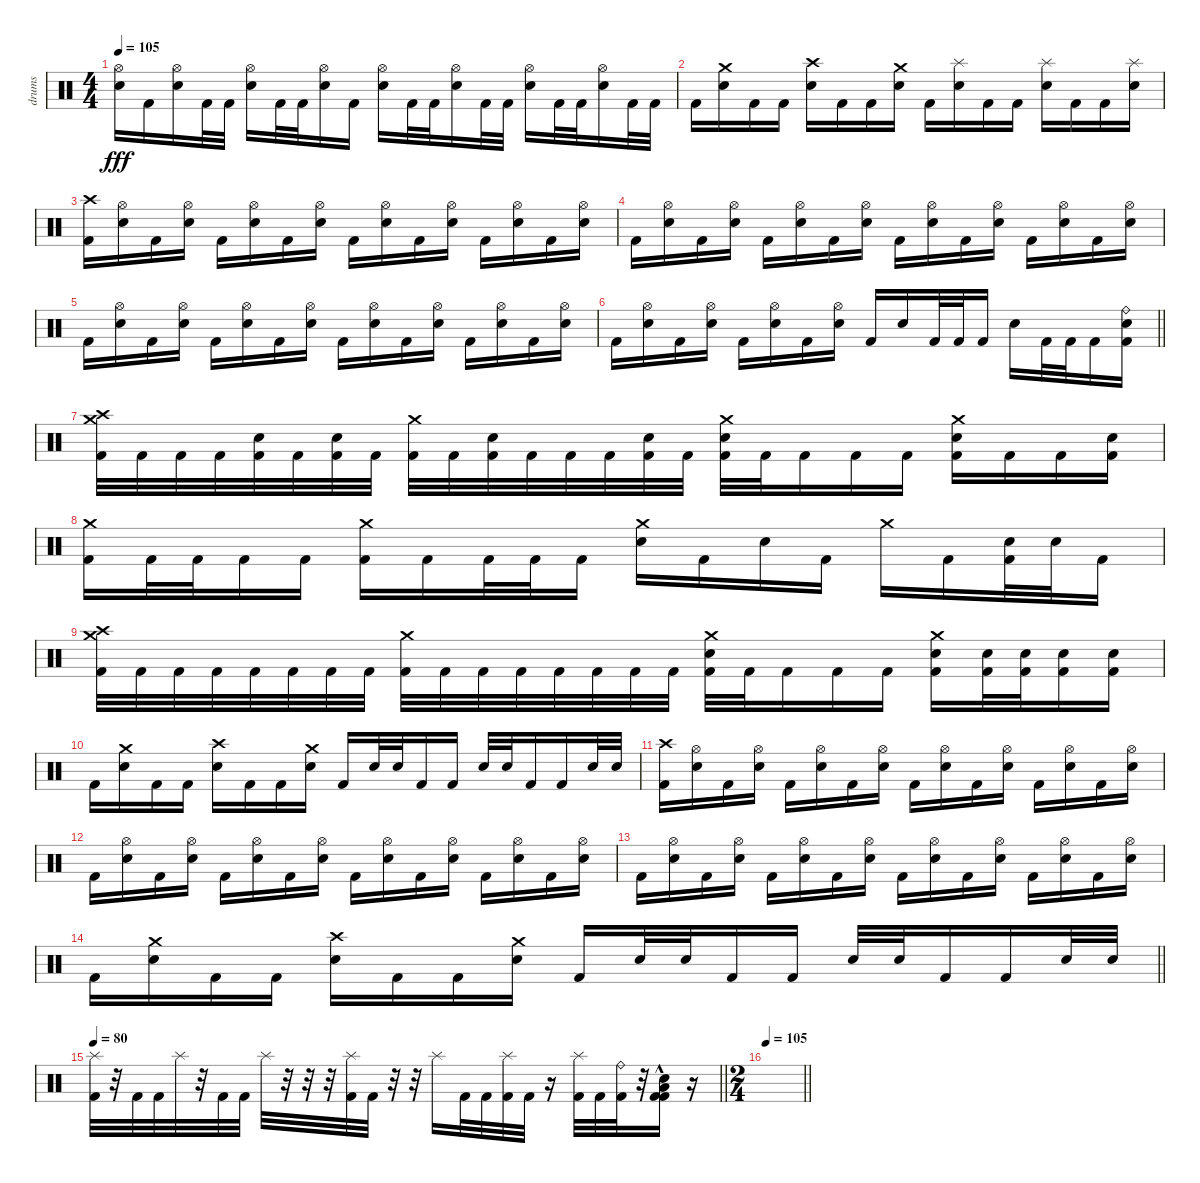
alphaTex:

\track ("drums" "drums") {instrument percussion}
\staff {score}
\articulation defaults
\ts (4 4)
\tempo 105
\clef neutral
\ks c
("Hi-Hat (open)" "Electric Snare (hit)").16{dy fff} "Kick (hit) 2".16 ("Hi-Hat (open)" "Electric Snare (hit)").16 "Kick (hit) 2".32 "Kick (hit) 2".32 ("Hi-Hat (open)" "Electric Snare (hit)").16 "Kick (hit) 2".32 "Kick (hit) 2".32 ("Hi-Hat (open)" "Electric Snare (hit)").16 "Kick (hit) 2".16 ("Hi-Hat (open)" "Electric Snare (hit)").16 "Kick (hit) 2".32 "Kick (hit) 2".32 ("Hi-Hat (open)" "Electric Snare (hit)").16 "Kick (hit) 2".32 "Kick (hit) 2".32 ("Hi-Hat (open)" "Electric Snare (hit)").16 "Kick (hit) 2".32 "Kick (hit) 2".32 ("Hi-Hat (open)" "Electric Snare (hit)").16 "Kick (hit) 2".32 "Kick (hit) 2".32 |
"Kick (hit) 2".16 ("Crash medium (hit)" "Electric Snare (hit)").16 "Kick (hit) 2".16 "Kick (hit) 2".16 ("Crash high (hit)" "Electric Snare (hit)").16 "Kick (hit) 2".16 "Kick (hit) 2".16 ("Crash medium (hit)" "Electric Snare (hit)").16 "Kick (hit) 2".16 ("Splash (hit)" "Electric Snare (hit)").16 "Kick (hit) 2".16 "Kick (hit) 2".16 ("Splash (hit)" "Electric Snare (hit)").16 "Kick (hit) 2".16 "Kick (hit) 2".16 ("Splash (hit)" "Electric Snare (hit)").16 |
("Crash high (hit)" "Kick (hit) 2").16 ("Hi-Hat (open)" "Electric Snare (hit)").16 "Kick (hit) 2".16 ("Hi-Hat (open)" "Electric Snare (hit)").16 "Kick (hit) 2".16 ("Hi-Hat (open)" "Electric Snare (hit)").16 "Kick (hit) 2".16 ("Hi-Hat (open)" "Electric Snare (hit)").16 "Kick (hit) 2".16 ("Hi-Hat (open)" "Electric Snare (hit)").16 "Kick (hit) 2".16 ("Hi-Hat (open)" "Electric Snare (hit)").16 "Kick (hit) 2".16 ("Hi-Hat (open)" "Electric Snare (hit)").16 "Kick (hit) 2".16 ("Hi-Hat (open)" "Electric Snare (hit)").16 |
"Kick (hit) 2".16 ("Hi-Hat (open)" "Electric Snare (hit)").16 "Kick (hit) 2".16 ("Hi-Hat (open)" "Electric Snare (hit)").16 "Kick (hit) 2".16 ("Hi-Hat (open)" "Electric Snare (hit)").16 "Kick (hit) 2".16 ("Hi-Hat (open)" "Electric Snare (hit)").16 "Kick (hit) 2".16 ("Hi-Hat (open)" "Electric Snare (hit)").16 "Kick (hit) 2".16 ("Hi-Hat (open)" "Electric Snare (hit)").16 "Kick (hit) 2".16 ("Hi-Hat (open)" "Electric Snare (hit)").16 "Kick (hit) 2".16 ("Hi-Hat (open)" "Electric Snare (hit)").16 |
"Kick (hit) 2".16 ("Hi-Hat (open)" "Electric Snare (hit)").16 "Kick (hit) 2".16 ("Hi-Hat (open)" "Electric Snare (hit)").16 "Kick (hit) 2".16 ("Hi-Hat (open)" "Electric Snare (hit)").16 "Kick (hit) 2".16 ("Hi-Hat (open)" "Electric Snare (hit)").16 "Kick (hit) 2".16 ("Hi-Hat (open)" "Electric Snare (hit)").16 "Kick (hit) 2".16 ("Hi-Hat (open)" "Electric Snare (hit)").16 "Kick (hit) 2".16 ("Hi-Hat (open)" "Electric Snare (hit)").16 "Kick (hit) 2".16 ("Hi-Hat (open)" "Electric Snare (hit)").16 |
\barLineRight lightlight "Kick (hit) 2".16
("Hi-Hat (open)" "Electric Snare (hit)").16 "Kick (hit) 2".16 ("Hi-Hat (open)" "Electric Snare (hit)").16 "Kick (hit) 2".16 ("Hi-Hat (open)" "Electric Snare (hit)").16 "Kick (hit) 2".16 ("Hi-Hat (open)" "Electric Snare (hit)").16 "Kick (hit) 2".16 "Electric Snare (hit)".16 "Kick (hit) 2".32 "Kick (hit) 2".32 "Kick (hit) 2".16 "Electric Snare (hit)".16 "Kick (hit) 2".32 "Kick (hit) 2".32 "Kick (hit) 2".16 ("Ride (bell)" "Electric Snare (hit)" "Kick (hit) 2").16 |
\section ("" "")
("Crash high (hit)" "Crash medium (hit)" "Kick (hit) 2").32 "Kick (hit) 2".32 "Kick (hit) 2".32 "Kick (hit) 2".32 ("Electric Snare (hit)" "Kick (hit) 2").32 "Kick (hit) 2".32 ("Electric Snare (hit)" "Kick (hit) 2").32 "Kick (hit) 2".32 ("Crash medium (hit)" "Kick (hit) 2").32 "Kick (hit) 2".32 ("Electric Snare (hit)" "Kick (hit) 2").32 "Kick (hit) 2".32 "Kick (hit) 2".32 "Kick (hit) 2".32 ("Electric Snare (hit)" "Kick (hit) 2").32 "Kick (hit) 2".32 ("Crash medium (hit)" "Electric Snare (hit)" "Kick (hit) 2").32 "Kick (hit) 2".32 "Kick (hit) 2".16 "Kick (hit) 2".16 "Kick (hit) 2".16 ("Crash medium (hit)" "Electric Snare (hit)" "Kick (hit) 2").16 "Kick (hit) 2".16 "Kick (hit) 2".16 ("Electric Snare (hit)" "Kick (hit) 2").16 |
("Crash medium (hit)" "Kick (hit) 2").16 "Kick (hit) 2".32 "Kick (hit) 2".32 "Kick (hit) 2".16 "Kick (hit) 2".16 ("Crash medium (hit)" "Kick (hit) 2").16 "Kick (hit) 2".16 "Kick (hit) 2".32 "Kick (hit) 2".32 "Kick (hit) 2".16 ("Crash medium (hit)" "Electric Snare (hit)").16 "Kick (hit) 2".16 "Electric Snare (hit)".16 "Kick (hit) 2".16 "Crash medium (hit)".16 "Kick (hit) 2".16 ("Electric Snare (hit)" "Kick (hit) 2").32 "Electric Snare (hit)".32 "Kick (hit) 2".16 |
("Crash high (hit)" "Crash medium (hit)" "Kick (hit) 2").32 "Kick (hit) 2".32 "Kick (hit) 2".32 "Kick (hit) 2".32 "Kick (hit) 2".32 "Kick (hit) 2".32 "Kick (hit) 2".32 "Kick (hit) 2".32 ("Crash medium (hit)" "Kick (hit) 2").32 "Kick (hit) 2".32 "Kick (hit) 2".32 "Kick (hit) 2".32 "Kick (hit) 2".32 "Kick (hit) 2".32 "Kick (hit) 2".32 "Kick (hit) 2".32 ("Crash medium (hit)" "Electric Snare (hit)" "Kick (hit) 2").32 "Kick (hit) 2".32 "Kick (hit) 2".16 "Kick (hit) 2".16 "Kick (hit) 2".16 ("Crash medium (hit)" "Electric Snare (hit)" "Kick (hit) 2").16 ("Electric Snare (hit)" "Kick (hit) 2").32 ("Electric Snare (hit)" "Kick (hit) 2").32 ("Electric Snare (hit)" "Kick (hit) 2").16 ("Electric Snare (hit)" "Kick (hit) 2").16 |
"Kick (hit) 2".16 ("Crash medium (hit)" "Electric Snare (hit)").16 "Kick (hit) 2".16 "Kick (hit) 2".16 ("Crash high (hit)" "Electric Snare (hit)").16 "Kick (hit) 2".16 "Kick (hit) 2".16 ("Crash medium (hit)" "Electric Snare (hit)").16 "Kick (hit) 2".16 "Electric Snare (hit)".32 "Electric Snare (hit)".32 "Kick (hit) 2".16 "Kick (hit) 2".16 "Electric Snare (hit)".32 "Electric Snare (hit)".32 "Kick (hit) 2".16 "Kick (hit) 2".16 "Electric Snare (hit)".32 "Electric Snare (hit)".32 |
("Crash high (hit)" "Kick (hit) 2").16 ("Hi-Hat (open)" "Electric Snare (hit)").16 "Kick (hit) 2".16 ("Hi-Hat (open)" "Electric Snare (hit)").16 "Kick (hit) 2".16 ("Hi-Hat (open)" "Electric Snare (hit)").16 "Kick (hit) 2".16 ("Hi-Hat (open)" "Electric Snare (hit)").16 "Kick (hit) 2".16 ("Hi-Hat (open)" "Electric Snare (hit)").16 "Kick (hit) 2".16 ("Hi-Hat (open)" "Electric Snare (hit)").16 "Kick (hit) 2".16 ("Hi-Hat (open)" "Electric Snare (hit)").16 "Kick (hit) 2".16 ("Hi-Hat (open)" "Electric Snare (hit)").16 |
"Kick (hit) 2".16 ("Hi-Hat (open)" "Electric Snare (hit)").16 "Kick (hit) 2".16 ("Hi-Hat (open)" "Electric Snare (hit)").16 "Kick (hit) 2".16 ("Hi-Hat (open)" "Electric Snare (hit)").16 "Kick (hit) 2".16 ("Hi-Hat (open)" "Electric Snare (hit)").16 "Kick (hit) 2".16 ("Hi-Hat (open)" "Electric Snare (hit)").16 "Kick (hit) 2".16 ("Hi-Hat (open)" "Electric Snare (hit)").16 "Kick (hit) 2".16 ("Hi-Hat (open)" "Electric Snare (hit)").16 "Kick (hit) 2".16 ("Hi-Hat (open)" "Electric Snare (hit)").16 |
"Kick (hit) 2".16 ("Hi-Hat (open)" "Electric Snare (hit)").16 "Kick (hit) 2".16 ("Hi-Hat (open)" "Electric Snare (hit)").16 "Kick (hit) 2".16 ("Hi-Hat (open)" "Electric Snare (hit)").16 "Kick (hit) 2".16 ("Hi-Hat (open)" "Electric Snare (hit)").16 "Kick (hit) 2".16 ("Hi-Hat (open)" "Electric Snare (hit)").16 "Kick (hit) 2".16 ("Hi-Hat (open)" "Electric Snare (hit)").16 "Kick (hit) 2".16 ("Hi-Hat (open)" "Electric Snare (hit)").16 "Kick (hit) 2".16 ("Hi-Hat (open)" "Electric Snare (hit)").16 |
\barLineRight lightlight "Kick (hit) 2".16
("Crash medium (hit)" "Electric Snare (hit)").16 "Kick (hit) 2".16 "Kick (hit) 2".16 ("Crash high (hit)" "Electric Snare (hit)").16 "Kick (hit) 2".16 "Kick (hit) 2".16 ("Crash medium (hit)" "Electric Snare (hit)").16 "Kick (hit) 2".16 "Electric Snare (hit)".32 "Electric Snare (hit)".32 "Kick (hit) 2".16 "Kick (hit) 2".16 "Electric Snare (hit)".32 "Electric Snare (hit)".32 "Kick (hit) 2".16 "Kick (hit) 2".16 "Electric Snare (hit)".32 "Electric Snare (hit)".32 |
\section ("" "")
\tempo 80
\barLineRight lightlight
("Splash (hit)" "Kick (hit) 2").32 r.32 "Kick (hit) 2".32 "Kick (hit) 2".32 "Splash (hit)".32 r.32 "Kick (hit) 2".32 "Kick (hit) 2".32 "Splash (hit)".32 r.32 r.32 r.32 ("Splash (hit)" "Kick (hit) 2").32 "Kick (hit) 2".32 r.32 r.32 "Splash (hit)".16 "Kick (hit) 2".32 "Kick (hit) 2".32 ("Splash (hit)" "Kick (hit) 2").32 "Kick (hit) 2".32 r.16 ("Splash (hit)" "Kick (hit) 2").32 "Kick (hit) 2".32 ("Ride (bell)" "Kick (hit) 2").32 r.32 ("Electric Snare (hit)" "Low Floor Tom (hit)"{hac} "Kick (hit) 2" "Kick (hit) 2").16 r.16 |
\ts (2 4)
\tempo 105
\barLineRight lightlight
